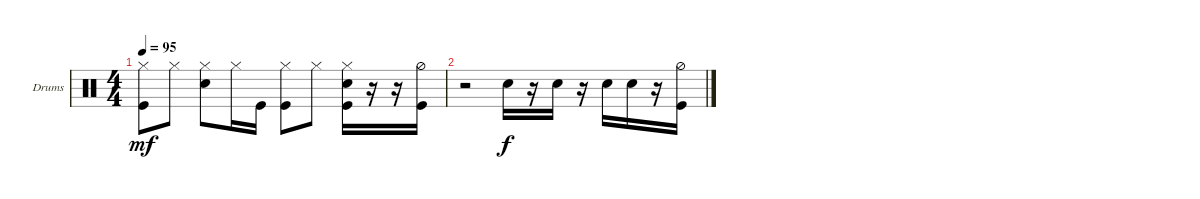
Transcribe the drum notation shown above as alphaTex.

\defaultSystemsLayout 4
\bracketExtendMode groupsimilarinstruments
\firstSystemTrackNameOrientation horizontal
\otherSystemsTrackNameOrientation horizontal
\track ("Batterie " "Drums") {instrument percussion}
\staff {score}
\articulation defaults
\ts (4 4)
\tempo 95
\clef neutral
\ks c
("Kick (hit)" "Hi-Hat (closed)").8{dy mf} "Hi-Hat (closed)".8 ("Hi-Hat (closed)" "Snare (hit) 2").8 "Hi-Hat (closed)".16 "Kick (hit)".16 ("Hi-Hat (closed)" "Kick (hit)").8 "Hi-Hat (closed)".8 ("Kick (hit)" "Hi-Hat (closed)" "Snare (hit) 2").16 r.16 r.16 ("Kick (hit)" "Hi-Hat (half)").16 |
r.2 "Snare (hit) 2".16{dy f} r.16 "Snare (hit) 2".16 r.16 "Snare (hit) 2".16 "Snare (hit) 2".16 r.16 ("Hi-Hat (half)" "Kick (hit)").16
